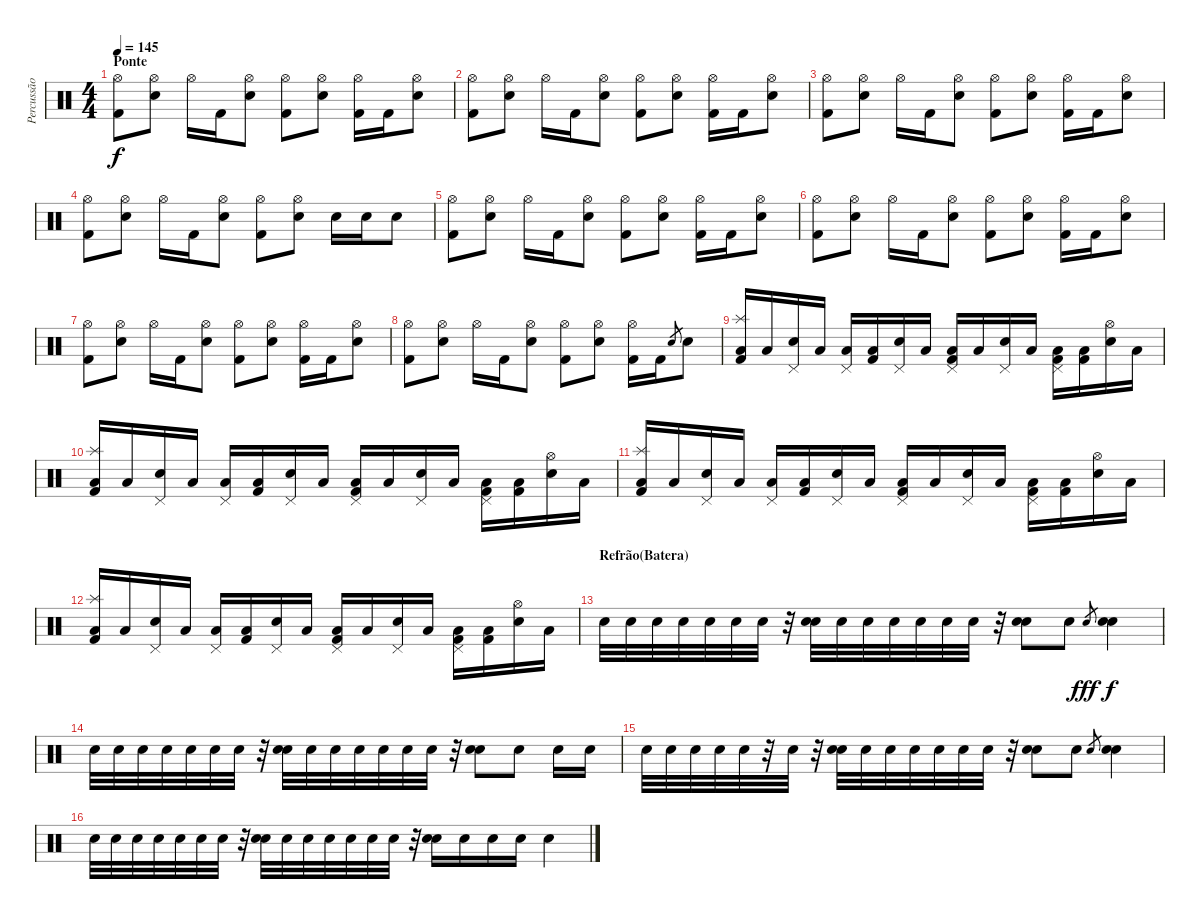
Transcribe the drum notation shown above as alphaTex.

\track ("Percussão" "Percussão") {instrument percussion}
\staff {score}
\articulation defaults
\ts (4 4)
\section ("" "Ponte")
\tempo 145
\clef neutral
\ks c
("Hi-Hat (open)" "Kick (hit) 2").8{dy f} ("Hi-Hat (open)" "Snare (hit) 2").8 "Hi-Hat (open)".16 "Kick (hit) 2".16 ("Hi-Hat (open)" "Snare (hit) 2").8 ("Hi-Hat (open)" "Kick (hit) 2").8 ("Hi-Hat (open)" "Snare (hit) 2").8 ("Hi-Hat (open)" "Kick (hit) 2").16 "Kick (hit) 2".16 ("Hi-Hat (open)" "Snare (hit) 2").8 |
("Hi-Hat (open)" "Kick (hit) 2").8 ("Hi-Hat (open)" "Snare (hit) 2").8 "Hi-Hat (open)".16 "Kick (hit) 2".16 ("Hi-Hat (open)" "Snare (hit) 2").8 ("Hi-Hat (open)" "Kick (hit) 2").8 ("Hi-Hat (open)" "Snare (hit) 2").8 ("Hi-Hat (open)" "Kick (hit) 2").16 "Kick (hit) 2".16 ("Hi-Hat (open)" "Snare (hit) 2").8 |
("Hi-Hat (open)" "Kick (hit) 2").8 ("Hi-Hat (open)" "Snare (hit) 2").8 "Hi-Hat (open)".16 "Kick (hit) 2".16 ("Hi-Hat (open)" "Snare (hit) 2").8 ("Hi-Hat (open)" "Kick (hit) 2").8 ("Hi-Hat (open)" "Snare (hit) 2").8 ("Hi-Hat (open)" "Kick (hit) 2").16 "Kick (hit) 2".16 ("Hi-Hat (open)" "Snare (hit) 2").8 |
("Hi-Hat (open)" "Kick (hit) 2").8 ("Hi-Hat (open)" "Snare (hit) 2").8 "Hi-Hat (open)".16 "Kick (hit) 2".16 ("Hi-Hat (open)" "Snare (hit) 2").8 ("Hi-Hat (open)" "Kick (hit) 2").8 ("Hi-Hat (open)" "Snare (hit) 2").8 "Snare (hit) 2".16 "Snare (hit) 2".16 "Snare (hit) 2".8 |
("Hi-Hat (open)" "Kick (hit) 2").8 ("Hi-Hat (open)" "Snare (hit) 2").8 "Hi-Hat (open)".16 "Kick (hit) 2".16 ("Hi-Hat (open)" "Snare (hit) 2").8 ("Hi-Hat (open)" "Kick (hit) 2").8 ("Hi-Hat (open)" "Snare (hit) 2").8 ("Hi-Hat (open)" "Kick (hit) 2").16 "Kick (hit) 2".16 ("Hi-Hat (open)" "Snare (hit) 2").8 |
("Hi-Hat (open)" "Kick (hit) 2").8 ("Hi-Hat (open)" "Snare (hit) 2").8 "Hi-Hat (open)".16 "Kick (hit) 2".16 ("Hi-Hat (open)" "Snare (hit) 2").8 ("Hi-Hat (open)" "Kick (hit) 2").8 ("Hi-Hat (open)" "Snare (hit) 2").8 ("Hi-Hat (open)" "Kick (hit) 2").16 "Kick (hit) 2".16 ("Hi-Hat (open)" "Snare (hit) 2").8 |
("Hi-Hat (open)" "Kick (hit) 2").8 ("Hi-Hat (open)" "Snare (hit) 2").8 "Hi-Hat (open)".16 "Kick (hit) 2".16 ("Hi-Hat (open)" "Snare (hit) 2").8 ("Hi-Hat (open)" "Kick (hit) 2").8 ("Hi-Hat (open)" "Snare (hit) 2").8 ("Hi-Hat (open)" "Kick (hit) 2").16 "Kick (hit) 2".16 ("Hi-Hat (open)" "Snare (hit) 2").8 |
("Hi-Hat (open)" "Kick (hit) 2").8 ("Hi-Hat (open)" "Snare (hit) 2").8 "Hi-Hat (open)".16 "Kick (hit) 2".16 ("Hi-Hat (open)" "Snare (hit) 2").8 ("Hi-Hat (open)" "Kick (hit) 2").8 ("Hi-Hat (open)" "Snare (hit) 2").8 ("Hi-Hat (open)" "Kick (hit) 2").16 "Kick (hit) 2".16 "Snare (hit) 2".8{gr} "Snare (hit) 2".8 |
("Splash (hit)" "Kick (hit) 2" "Low Floor Tom (hit)").16 "Low Floor Tom (hit)".16 ("Pedal Hi-Hat (hit)" "Snare (hit) 2").16 "Low Floor Tom (hit)".16 ("Pedal Hi-Hat (hit)" "Low Floor Tom (hit)").16 ("Kick (hit) 2" "Low Floor Tom (hit)").16 ("Pedal Hi-Hat (hit)" "Snare (hit) 2").16 "Low Floor Tom (hit)".16 ("Pedal Hi-Hat (hit)" "Kick (hit) 2" "Low Floor Tom (hit)").16 "Low Floor Tom (hit)".16 ("Pedal Hi-Hat (hit)" "Snare (hit) 2").16 "Low Floor Tom (hit)".16 ("Pedal Hi-Hat (hit)" "Kick (hit) 2" "Low Floor Tom (hit)").16 ("Kick (hit) 2" "Low Floor Tom (hit)").16 ("Hi-Hat (open)" "Snare (hit) 2").16 "Low Floor Tom (hit)".16 |
("Splash (hit)" "Kick (hit) 2" "Low Floor Tom (hit)").16 "Low Floor Tom (hit)".16 ("Pedal Hi-Hat (hit)" "Snare (hit) 2").16 "Low Floor Tom (hit)".16 ("Pedal Hi-Hat (hit)" "Low Floor Tom (hit)").16 ("Kick (hit) 2" "Low Floor Tom (hit)").16 ("Pedal Hi-Hat (hit)" "Snare (hit) 2").16 "Low Floor Tom (hit)".16 ("Pedal Hi-Hat (hit)" "Kick (hit) 2" "Low Floor Tom (hit)").16 "Low Floor Tom (hit)".16 ("Pedal Hi-Hat (hit)" "Snare (hit) 2").16 "Low Floor Tom (hit)".16 ("Pedal Hi-Hat (hit)" "Kick (hit) 2" "Low Floor Tom (hit)").16 ("Kick (hit) 2" "Low Floor Tom (hit)").16 ("Hi-Hat (open)" "Snare (hit) 2").16 "Low Floor Tom (hit)".16 |
("Splash (hit)" "Kick (hit) 2" "Low Floor Tom (hit)").16 "Low Floor Tom (hit)".16 ("Pedal Hi-Hat (hit)" "Snare (hit) 2").16 "Low Floor Tom (hit)".16 ("Pedal Hi-Hat (hit)" "Low Floor Tom (hit)").16 ("Kick (hit) 2" "Low Floor Tom (hit)").16 ("Pedal Hi-Hat (hit)" "Snare (hit) 2").16 "Low Floor Tom (hit)".16 ("Pedal Hi-Hat (hit)" "Kick (hit) 2" "Low Floor Tom (hit)").16 "Low Floor Tom (hit)".16 ("Pedal Hi-Hat (hit)" "Snare (hit) 2").16 "Low Floor Tom (hit)".16 ("Pedal Hi-Hat (hit)" "Kick (hit) 2" "Low Floor Tom (hit)").16 ("Kick (hit) 2" "Low Floor Tom (hit)").16 ("Hi-Hat (open)" "Snare (hit) 2").16 "Low Floor Tom (hit)".16 |
("Splash (hit)" "Kick (hit) 2" "Low Floor Tom (hit)").16 "Low Floor Tom (hit)".16 ("Pedal Hi-Hat (hit)" "Snare (hit) 2").16 "Low Floor Tom (hit)".16 ("Pedal Hi-Hat (hit)" "Low Floor Tom (hit)").16 ("Kick (hit) 2" "Low Floor Tom (hit)").16 ("Pedal Hi-Hat (hit)" "Snare (hit) 2").16 "Low Floor Tom (hit)".16 ("Pedal Hi-Hat (hit)" "Kick (hit) 2" "Low Floor Tom (hit)").16 "Low Floor Tom (hit)".16 ("Pedal Hi-Hat (hit)" "Snare (hit) 2").16 "Low Floor Tom (hit)".16 ("Pedal Hi-Hat (hit)" "Kick (hit) 2" "Low Floor Tom (hit)").16 ("Kick (hit) 2" "Low Floor Tom (hit)").16 ("Hi-Hat (open)" "Snare (hit) 2").16 "Low Floor Tom (hit)".16 |
\section ("" "Refrão(Batera)")
"Snare (hit) 2".32 "Snare (hit) 2".32 "Snare (hit) 2".32 "Snare (hit) 2".32 "Snare (hit) 2".32 "Snare (hit) 2".32 "Snare (hit) 2".32 r.32 ("Snare (hit) 2" "Snare (hit) 2").32 "Snare (hit) 2".32 "Snare (hit) 2".32 "Snare (hit) 2".32 "Snare (hit) 2".32 "Snare (hit) 2".32 "Snare (hit) 2".32 r.32 ("Snare (hit) 2" "Snare (hit) 2").8 "Snare (hit) 2".8 "Snare (hit) 2".8{gr dy fff} ("Snare (hit) 2" "Snare (hit) 2").4{dy f} |
"Snare (hit) 2".32 "Snare (hit) 2".32 "Snare (hit) 2".32 "Snare (hit) 2".32 "Snare (hit) 2".32 "Snare (hit) 2".32 "Snare (hit) 2".32 r.32 ("Snare (hit) 2" "Snare (hit) 2").32 "Snare (hit) 2".32 "Snare (hit) 2".32 "Snare (hit) 2".32 "Snare (hit) 2".32 "Snare (hit) 2".32 "Snare (hit) 2".32 r.32 ("Snare (hit) 2" "Snare (hit) 2").8 "Snare (hit) 2".8 "Snare (hit) 2".16 "Snare (hit) 2".16 |
"Snare (hit) 2".32 "Snare (hit) 2".32 "Snare (hit) 2".32 "Snare (hit) 2".32 "Snare (hit) 2".32 r.32 "Snare (hit) 2".32 r.32 ("Snare (hit) 2" "Snare (hit) 2").32 "Snare (hit) 2".32 "Snare (hit) 2".32 "Snare (hit) 2".32 "Snare (hit) 2".32 "Snare (hit) 2".32 "Snare (hit) 2".32 r.32 ("Snare (hit) 2" "Snare (hit) 2").8 "Snare (hit) 2".8 "Snare (hit) 2".8{gr} ("Snare (hit) 2" "Snare (hit)").4 |
"Snare (hit) 2".32 "Snare (hit) 2".32 "Snare (hit) 2".32 "Snare (hit) 2".32 "Snare (hit) 2".32 "Snare (hit) 2".32 "Snare (hit) 2".32 r.32 ("Snare (hit) 2" "Snare (hit) 2").32 "Snare (hit) 2".32 "Snare (hit) 2".32 "Snare (hit) 2".32 "Snare (hit) 2".32 "Snare (hit) 2".32 "Snare (hit) 2".32 r.32 ("Snare (hit) 2" "Snare (hit) 2").16 "Snare (hit) 2".16 "Snare (hit) 2".16 "Snare (hit) 2".16 "Snare (hit) 2".4
